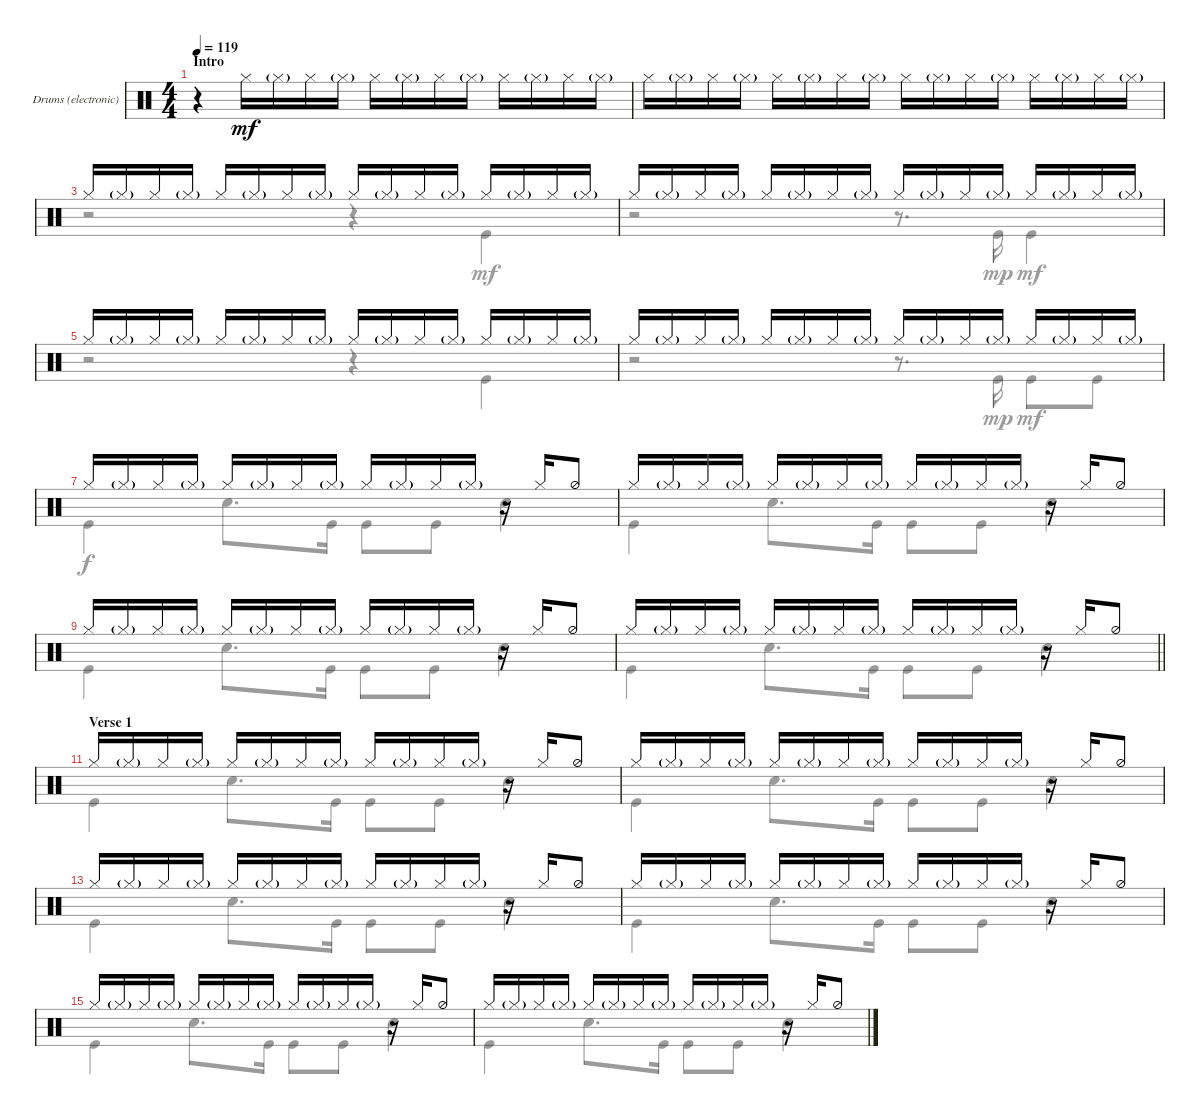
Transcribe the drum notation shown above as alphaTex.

\defaultSystemsLayout 4
\bracketExtendMode groupsimilarinstruments
\useSystemSignSeparator
\multiBarRest
\multiTrackTrackNamePolicy allsystems
\firstSystemTrackNameMode fullname
\firstSystemTrackNameOrientation horizontal
\otherSystemsTrackNameOrientation horizontal
\defaultBarNumberDisplay FirstOfSystem
\track ("Drums (electronic)" "Dr.") {multiBarRest instrument percussion}
\staff {score}
\articulation defaults
\voice
\ts (4 4)
\section ("" "Intro")
\tempo 119
\clef neutral
\ks aminor
r.4{dy mf} "Hi-Hat (closed)".16 "Hi-Hat (closed)"{g}.16 "Hi-Hat (closed)".16 "Hi-Hat (closed)"{g}.16 "Hi-Hat (closed)".16 "Hi-Hat (closed)"{g}.16 "Hi-Hat (closed)".16 "Hi-Hat (closed)"{g}.16 "Hi-Hat (closed)".16 "Hi-Hat (closed)"{g}.16 "Hi-Hat (closed)".16 "Hi-Hat (closed)"{g}.16 |
"Hi-Hat (closed)".16 "Hi-Hat (closed)"{g}.16 "Hi-Hat (closed)".16 "Hi-Hat (closed)"{g}.16 "Hi-Hat (closed)".16 "Hi-Hat (closed)"{g}.16 "Hi-Hat (closed)".16 "Hi-Hat (closed)"{g}.16 "Hi-Hat (closed)".16 "Hi-Hat (closed)"{g}.16 "Hi-Hat (closed)".16 "Hi-Hat (closed)"{g}.16 "Hi-Hat (closed)".16 "Hi-Hat (closed)"{g}.16 "Hi-Hat (closed)".16 "Hi-Hat (closed)"{g}.16 |
"Hi-Hat (closed)".16 "Hi-Hat (closed)"{g}.16 "Hi-Hat (closed)".16 "Hi-Hat (closed)"{g}.16 "Hi-Hat (closed)".16 "Hi-Hat (closed)"{g}.16 "Hi-Hat (closed)".16 "Hi-Hat (closed)"{g}.16 "Hi-Hat (closed)".16 "Hi-Hat (closed)"{g}.16 "Hi-Hat (closed)".16 "Hi-Hat (closed)"{g}.16 "Hi-Hat (closed)".16 "Hi-Hat (closed)"{g}.16 "Hi-Hat (closed)".16 "Hi-Hat (closed)"{g}.16 |
"Hi-Hat (closed)".16 "Hi-Hat (closed)"{g}.16 "Hi-Hat (closed)".16 "Hi-Hat (closed)"{g}.16 "Hi-Hat (closed)".16 "Hi-Hat (closed)"{g}.16 "Hi-Hat (closed)".16 "Hi-Hat (closed)"{g}.16 "Hi-Hat (closed)".16 "Hi-Hat (closed)"{g}.16 "Hi-Hat (closed)".16 "Hi-Hat (closed)"{g}.16 "Hi-Hat (closed)".16 "Hi-Hat (closed)"{g}.16 "Hi-Hat (closed)".16 "Hi-Hat (closed)"{g}.16 |
"Hi-Hat (closed)".16 "Hi-Hat (closed)"{g}.16 "Hi-Hat (closed)".16 "Hi-Hat (closed)"{g}.16 "Hi-Hat (closed)".16 "Hi-Hat (closed)"{g}.16 "Hi-Hat (closed)".16 "Hi-Hat (closed)"{g}.16 "Hi-Hat (closed)".16 "Hi-Hat (closed)"{g}.16 "Hi-Hat (closed)".16 "Hi-Hat (closed)"{g}.16 "Hi-Hat (closed)".16 "Hi-Hat (closed)"{g}.16 "Hi-Hat (closed)".16 "Hi-Hat (closed)"{g}.16 |
"Hi-Hat (closed)".16 "Hi-Hat (closed)"{g}.16 "Hi-Hat (closed)".16 "Hi-Hat (closed)"{g}.16 "Hi-Hat (closed)".16 "Hi-Hat (closed)"{g}.16 "Hi-Hat (closed)".16 "Hi-Hat (closed)"{g}.16 "Hi-Hat (closed)".16 "Hi-Hat (closed)"{g}.16 "Hi-Hat (closed)".16 "Hi-Hat (closed)"{g}.16 "Hi-Hat (closed)".16 "Hi-Hat (closed)"{g}.16 "Hi-Hat (closed)".16 "Hi-Hat (closed)"{g}.16 |
"Hi-Hat (closed)".16 "Hi-Hat (closed)"{g}.16 "Hi-Hat (closed)".16 "Hi-Hat (closed)"{g}.16 "Hi-Hat (closed)".16 "Hi-Hat (closed)"{g}.16 "Hi-Hat (closed)".16 "Hi-Hat (closed)"{g}.16 "Hi-Hat (closed)".16 "Hi-Hat (closed)"{g}.16 "Hi-Hat (closed)".16 "Hi-Hat (closed)"{g}.16 r.16 "Hi-Hat (closed)".16 "Hi-Hat (half)".8 |
"Hi-Hat (closed)".16 "Hi-Hat (closed)"{g}.16 "Hi-Hat (closed)".16 "Hi-Hat (closed)"{g}.16 "Hi-Hat (closed)".16 "Hi-Hat (closed)"{g}.16 "Hi-Hat (closed)".16 "Hi-Hat (closed)"{g}.16 "Hi-Hat (closed)".16 "Hi-Hat (closed)"{g}.16 "Hi-Hat (closed)".16 "Hi-Hat (closed)"{g}.16 r.16 "Hi-Hat (closed)".16 "Hi-Hat (half)".8 |
"Hi-Hat (closed)".16 "Hi-Hat (closed)"{g}.16 "Hi-Hat (closed)".16 "Hi-Hat (closed)"{g}.16 "Hi-Hat (closed)".16 "Hi-Hat (closed)"{g}.16 "Hi-Hat (closed)".16 "Hi-Hat (closed)"{g}.16 "Hi-Hat (closed)".16 "Hi-Hat (closed)"{g}.16 "Hi-Hat (closed)".16 "Hi-Hat (closed)"{g}.16 r.16 "Hi-Hat (closed)".16 "Hi-Hat (half)".8 |
\barLineRight lightlight "Hi-Hat (closed)".16 "Hi-Hat (closed)"{g}.16 "Hi-Hat (closed)".16 "Hi-Hat (closed)"{g}.16 "Hi-Hat (closed)".16 "Hi-Hat (closed)"{g}.16 "Hi-Hat (closed)".16 "Hi-Hat (closed)"{g}.16 "Hi-Hat (closed)".16 "Hi-Hat (closed)"{g}.16 "Hi-Hat (closed)".16 "Hi-Hat (closed)"{g}.16
r.16 "Hi-Hat (closed)".16 "Hi-Hat (half)".8 |
\section ("" "Verse 1")
"Hi-Hat (closed)".16 "Hi-Hat (closed)"{g}.16 "Hi-Hat (closed)".16 "Hi-Hat (closed)"{g}.16 "Hi-Hat (closed)".16 "Hi-Hat (closed)"{g}.16 "Hi-Hat (closed)".16 "Hi-Hat (closed)"{g}.16 "Hi-Hat (closed)".16 "Hi-Hat (closed)"{g}.16 "Hi-Hat (closed)".16 "Hi-Hat (closed)"{g}.16 r.16 "Hi-Hat (closed)".16 "Hi-Hat (half)".8 |
"Hi-Hat (closed)".16 "Hi-Hat (closed)"{g}.16 "Hi-Hat (closed)".16 "Hi-Hat (closed)"{g}.16 "Hi-Hat (closed)".16 "Hi-Hat (closed)"{g}.16 "Hi-Hat (closed)".16 "Hi-Hat (closed)"{g}.16 "Hi-Hat (closed)".16 "Hi-Hat (closed)"{g}.16 "Hi-Hat (closed)".16 "Hi-Hat (closed)"{g}.16 r.16 "Hi-Hat (closed)".16 "Hi-Hat (half)".8 |
"Hi-Hat (closed)".16 "Hi-Hat (closed)"{g}.16 "Hi-Hat (closed)".16 "Hi-Hat (closed)"{g}.16 "Hi-Hat (closed)".16 "Hi-Hat (closed)"{g}.16 "Hi-Hat (closed)".16 "Hi-Hat (closed)"{g}.16 "Hi-Hat (closed)".16 "Hi-Hat (closed)"{g}.16 "Hi-Hat (closed)".16 "Hi-Hat (closed)"{g}.16 r.16 "Hi-Hat (closed)".16 "Hi-Hat (half)".8 |
"Hi-Hat (closed)".16 "Hi-Hat (closed)"{g}.16 "Hi-Hat (closed)".16 "Hi-Hat (closed)"{g}.16 "Hi-Hat (closed)".16 "Hi-Hat (closed)"{g}.16 "Hi-Hat (closed)".16 "Hi-Hat (closed)"{g}.16 "Hi-Hat (closed)".16 "Hi-Hat (closed)"{g}.16 "Hi-Hat (closed)".16 "Hi-Hat (closed)"{g}.16 r.16 "Hi-Hat (closed)".16 "Hi-Hat (half)".8 |
"Hi-Hat (closed)".16 "Hi-Hat (closed)"{g}.16 "Hi-Hat (closed)".16 "Hi-Hat (closed)"{g}.16 "Hi-Hat (closed)".16 "Hi-Hat (closed)"{g}.16 "Hi-Hat (closed)".16 "Hi-Hat (closed)"{g}.16 "Hi-Hat (closed)".16 "Hi-Hat (closed)"{g}.16 "Hi-Hat (closed)".16 "Hi-Hat (closed)"{g}.16 r.16 "Hi-Hat (closed)".16 "Hi-Hat (half)".8 |
"Hi-Hat (closed)".16 "Hi-Hat (closed)"{g}.16 "Hi-Hat (closed)".16 "Hi-Hat (closed)"{g}.16 "Hi-Hat (closed)".16 "Hi-Hat (closed)"{g}.16 "Hi-Hat (closed)".16 "Hi-Hat (closed)"{g}.16 "Hi-Hat (closed)".16 "Hi-Hat (closed)"{g}.16 "Hi-Hat (closed)".16 "Hi-Hat (closed)"{g}.16 r.16 "Hi-Hat (closed)".16 "Hi-Hat (half)".8
\voice
\clef neutral
\ottava regular
\simile none
\ks aminor
|
|
r.2 r.4 "Kick (hit)".4 |
r.2 r.8{d} "Kick (hit)".16{dy mp} "Kick (hit)".4{dy mf} |
r.2 r.4 "Kick (hit)".4 |
r.2 r.8{d} "Kick (hit)".16{dy mp} "Kick (hit)".8{dy mf} "Kick (hit)".8 |
"Kick (hit)".4{dy f} "Snare (hit) 2".8{d} "Kick (hit)".16 "Kick (hit)".8 "Kick (hit)".8 "Snare (hit) 2".4 |
"Kick (hit)".4 "Snare (hit) 2".8{d} "Kick (hit)".16 "Kick (hit)".8 "Kick (hit)".8 "Snare (hit) 2".4 |
"Kick (hit)".4 "Snare (hit) 2".8{d} "Kick (hit)".16 "Kick (hit)".8 "Kick (hit)".8 "Snare (hit) 2".4 |
\barLineRight lightlight "Kick (hit)".4 "Snare (hit) 2".8{d} "Kick (hit)".16 "Kick (hit)".8 "Kick (hit)".8 "Snare (hit) 2".4
|
"Kick (hit)".4 "Snare (hit) 2".8{d} "Kick (hit)".16 "Kick (hit)".8 "Kick (hit)".8 "Snare (hit) 2".4 |
"Kick (hit)".4 "Snare (hit) 2".8{d} "Kick (hit)".16 "Kick (hit)".8 "Kick (hit)".8 "Snare (hit) 2".4 |
"Kick (hit)".4 "Snare (hit) 2".8{d} "Kick (hit)".16 "Kick (hit)".8 "Kick (hit)".8 "Snare (hit) 2".4 |
"Kick (hit)".4 "Snare (hit) 2".8{d} "Kick (hit)".16 "Kick (hit)".8 "Kick (hit)".8 "Snare (hit) 2".4 |
"Kick (hit)".4 "Snare (hit) 2".8{d} "Kick (hit)".16 "Kick (hit)".8 "Kick (hit)".8 "Snare (hit) 2".4 |
"Kick (hit)".4 "Snare (hit) 2".8{d} "Kick (hit)".16 "Kick (hit)".8 "Kick (hit)".8 "Snare (hit) 2".4
